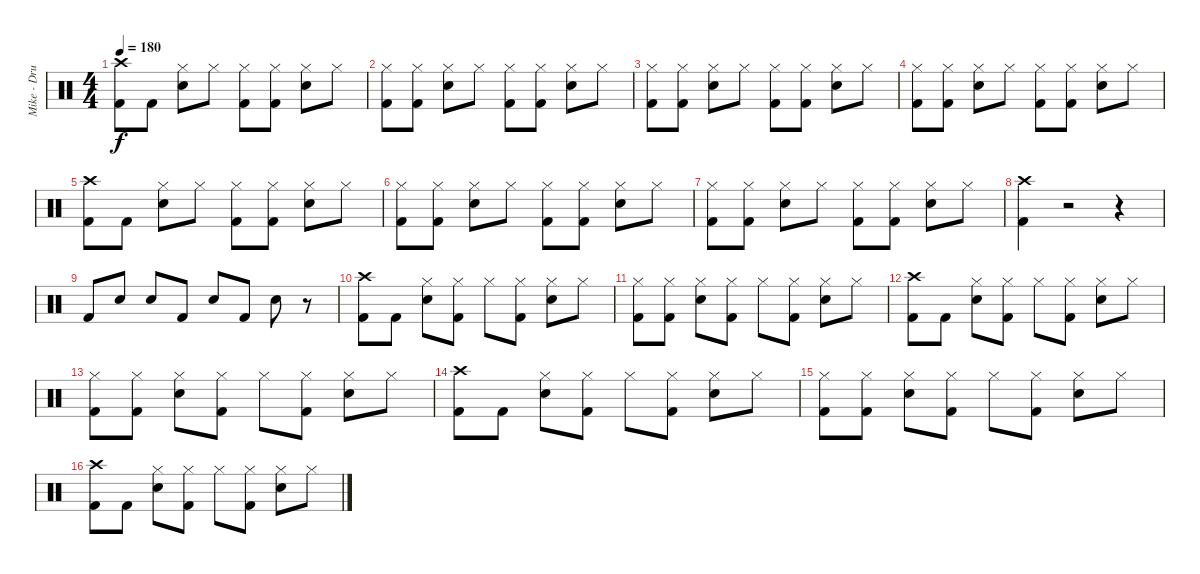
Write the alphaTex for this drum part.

\track ("Mike - Drums" "Mike - Dru") {instrument percussion}
\staff {score}
\articulation defaults
\ts (4 4)
\tempo 180
\clef neutral
\ks c
("Crash high (hit)" "Kick (hit) 2").8{dy f} "Kick (hit) 2".8 ("Hi-Hat (closed)" "Snare (hit) 2").8 "Hi-Hat (closed)".8 ("Hi-Hat (closed)" "Kick (hit) 2").8 ("Hi-Hat (closed)" "Kick (hit) 2").8 ("Hi-Hat (closed)" "Snare (hit) 2").8 "Hi-Hat (closed)".8 |
("Hi-Hat (closed)" "Kick (hit) 2").8 ("Hi-Hat (closed)" "Kick (hit) 2").8 ("Hi-Hat (closed)" "Snare (hit) 2").8 "Hi-Hat (closed)".8 ("Hi-Hat (closed)" "Kick (hit) 2").8 ("Hi-Hat (closed)" "Kick (hit) 2").8 ("Hi-Hat (closed)" "Snare (hit) 2").8 "Hi-Hat (closed)".8 |
("Hi-Hat (closed)" "Kick (hit) 2").8 ("Hi-Hat (closed)" "Kick (hit) 2").8 ("Hi-Hat (closed)" "Snare (hit) 2").8 "Hi-Hat (closed)".8 ("Hi-Hat (closed)" "Kick (hit) 2").8 ("Hi-Hat (closed)" "Kick (hit) 2").8 ("Hi-Hat (closed)" "Snare (hit) 2").8 "Hi-Hat (closed)".8 |
("Hi-Hat (closed)" "Kick (hit) 2").8 ("Hi-Hat (closed)" "Kick (hit) 2").8 ("Hi-Hat (closed)" "Snare (hit) 2").8 "Hi-Hat (closed)".8 ("Hi-Hat (closed)" "Kick (hit) 2").8 ("Hi-Hat (closed)" "Kick (hit) 2").8 ("Hi-Hat (closed)" "Snare (hit) 2").8 "Hi-Hat (closed)".8 |
("Crash high (hit)" "Kick (hit) 2").8 "Kick (hit) 2".8 ("Hi-Hat (closed)" "Snare (hit) 2").8 "Hi-Hat (closed)".8 ("Hi-Hat (closed)" "Kick (hit) 2").8 ("Hi-Hat (closed)" "Kick (hit) 2").8 ("Hi-Hat (closed)" "Snare (hit) 2").8 "Hi-Hat (closed)".8 |
("Hi-Hat (closed)" "Kick (hit) 2").8 ("Hi-Hat (closed)" "Kick (hit) 2").8 ("Hi-Hat (closed)" "Snare (hit) 2").8 "Hi-Hat (closed)".8 ("Hi-Hat (closed)" "Kick (hit) 2").8 ("Hi-Hat (closed)" "Kick (hit) 2").8 ("Hi-Hat (closed)" "Snare (hit) 2").8 "Hi-Hat (closed)".8 |
("Hi-Hat (closed)" "Kick (hit) 2").8 ("Hi-Hat (closed)" "Kick (hit) 2").8 ("Hi-Hat (closed)" "Snare (hit) 2").8 "Hi-Hat (closed)".8 ("Hi-Hat (closed)" "Kick (hit) 2").8 ("Hi-Hat (closed)" "Kick (hit) 2").8 ("Hi-Hat (closed)" "Snare (hit) 2").8 "Hi-Hat (closed)".8 |
("Crash high (hit)" "Kick (hit) 2").4 r.2 r.4 |
"Kick (hit) 2".8 "Snare (hit) 2".8 "Snare (hit) 2".8 "Kick (hit) 2".8 "Snare (hit) 2".8 "Kick (hit) 2".8 "Snare (hit) 2".8 r.8 |
("Crash high (hit)" "Kick (hit) 2").8 "Kick (hit) 2".8 ("Hi-Hat (closed)" "Snare (hit) 2").8 ("Hi-Hat (closed)" "Kick (hit) 2").8 "Hi-Hat (closed)".8 ("Hi-Hat (closed)" "Kick (hit) 2").8 ("Hi-Hat (closed)" "Snare (hit) 2").8 "Hi-Hat (closed)".8 |
("Hi-Hat (closed)" "Kick (hit) 2").8 ("Hi-Hat (closed)" "Kick (hit) 2").8 ("Hi-Hat (closed)" "Snare (hit) 2").8 ("Hi-Hat (closed)" "Kick (hit) 2").8 "Hi-Hat (closed)".8 ("Hi-Hat (closed)" "Kick (hit) 2").8 ("Hi-Hat (closed)" "Snare (hit) 2").8 "Hi-Hat (closed)".8 |
("Crash high (hit)" "Kick (hit) 2").8 "Kick (hit) 2".8 ("Hi-Hat (closed)" "Snare (hit) 2").8 ("Hi-Hat (closed)" "Kick (hit) 2").8 "Hi-Hat (closed)".8 ("Hi-Hat (closed)" "Kick (hit) 2").8 ("Hi-Hat (closed)" "Snare (hit) 2").8 "Hi-Hat (closed)".8 |
("Hi-Hat (closed)" "Kick (hit) 2").8 ("Hi-Hat (closed)" "Kick (hit) 2").8 ("Hi-Hat (closed)" "Snare (hit) 2").8 ("Hi-Hat (closed)" "Kick (hit) 2").8 "Hi-Hat (closed)".8 ("Hi-Hat (closed)" "Kick (hit) 2").8 ("Hi-Hat (closed)" "Snare (hit) 2").8 "Hi-Hat (closed)".8 |
("Crash high (hit)" "Kick (hit) 2").8 "Kick (hit) 2".8 ("Hi-Hat (closed)" "Snare (hit) 2").8 ("Hi-Hat (closed)" "Kick (hit) 2").8 "Hi-Hat (closed)".8 ("Hi-Hat (closed)" "Kick (hit) 2").8 ("Hi-Hat (closed)" "Snare (hit) 2").8 "Hi-Hat (closed)".8 |
("Hi-Hat (closed)" "Kick (hit) 2").8 ("Hi-Hat (closed)" "Kick (hit) 2").8 ("Hi-Hat (closed)" "Snare (hit) 2").8 ("Hi-Hat (closed)" "Kick (hit) 2").8 "Hi-Hat (closed)".8 ("Hi-Hat (closed)" "Kick (hit) 2").8 ("Hi-Hat (closed)" "Snare (hit) 2").8 "Hi-Hat (closed)".8 |
("Crash high (hit)" "Kick (hit) 2").8 "Kick (hit) 2".8 ("Hi-Hat (closed)" "Snare (hit) 2").8 ("Hi-Hat (closed)" "Kick (hit) 2").8 "Hi-Hat (closed)".8 ("Hi-Hat (closed)" "Kick (hit) 2").8 ("Hi-Hat (closed)" "Snare (hit) 2").8 "Hi-Hat (closed)".8
